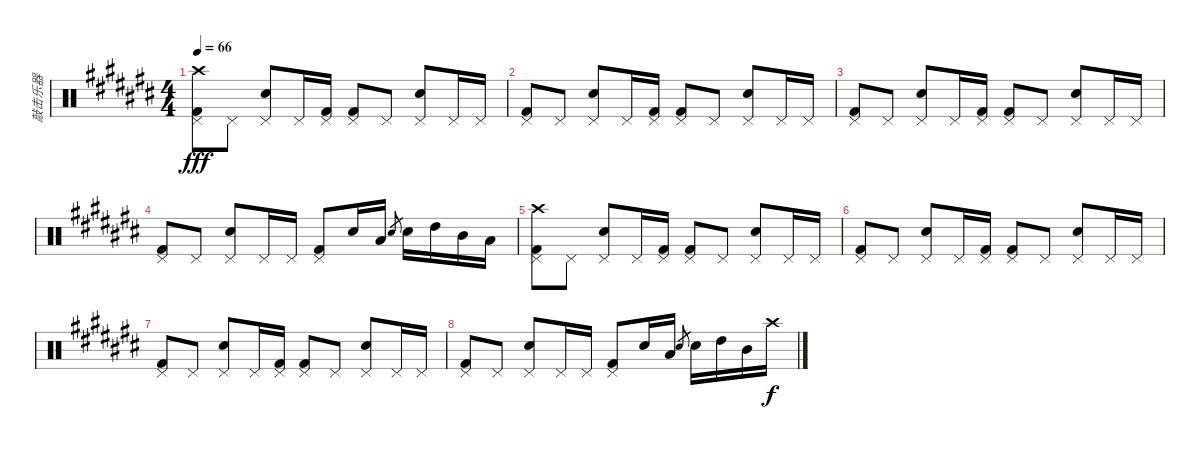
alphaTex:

\track ("敲击乐器" "敲击乐器") {instrument percussion}
\staff {score}
\articulation defaults
\ts (4 4)
\tempo 66
\clef neutral
\ks c#
("Crash high (hit)" "Pedal Hi-Hat (hit)" "Kick (hit) 2").8{dy fff} "Pedal Hi-Hat (hit)".8 ("Pedal Hi-Hat (hit)" "Snare (hit) 2").8 "Pedal Hi-Hat (hit)".16 ("Pedal Hi-Hat (hit)" "Kick (hit) 2").16 ("Pedal Hi-Hat (hit)" "Kick (hit) 2").8 "Pedal Hi-Hat (hit)".8 ("Pedal Hi-Hat (hit)" "Snare (hit) 2").8 "Pedal Hi-Hat (hit)".16 "Pedal Hi-Hat (hit)".16 |
("Pedal Hi-Hat (hit)" "Kick (hit) 2").8 "Pedal Hi-Hat (hit)".8 ("Pedal Hi-Hat (hit)" "Snare (hit) 2").8 "Pedal Hi-Hat (hit)".16 ("Pedal Hi-Hat (hit)" "Kick (hit) 2").16 ("Pedal Hi-Hat (hit)" "Kick (hit) 2").8 "Pedal Hi-Hat (hit)".8 ("Pedal Hi-Hat (hit)" "Snare (hit) 2").8 "Pedal Hi-Hat (hit)".16 "Pedal Hi-Hat (hit)".16 |
("Pedal Hi-Hat (hit)" "Kick (hit) 2").8 "Pedal Hi-Hat (hit)".8 ("Pedal Hi-Hat (hit)" "Snare (hit) 2").8 "Pedal Hi-Hat (hit)".16 ("Pedal Hi-Hat (hit)" "Kick (hit) 2").16 ("Pedal Hi-Hat (hit)" "Kick (hit) 2").8 "Pedal Hi-Hat (hit)".8 ("Pedal Hi-Hat (hit)" "Snare (hit) 2").8 "Pedal Hi-Hat (hit)".16 "Pedal Hi-Hat (hit)".16 |
("Pedal Hi-Hat (hit)" "Kick (hit) 2").8 "Pedal Hi-Hat (hit)".8 ("Pedal Hi-Hat (hit)" "Snare (hit) 2").8 "Pedal Hi-Hat (hit)".16 "Pedal Hi-Hat (hit)".16 ("Pedal Hi-Hat (hit)" "Kick (hit) 2").8 "Snare (hit) 2".16 "Low Tom (hit)".16 "Snare (hit) 2".8{gr} "Snare (hit) 2".16 "High Tom (hit)".16 "Mid Tom (hit)".16 "Low Tom (hit)".16 |
("Crash high (hit)" "Pedal Hi-Hat (hit)" "Kick (hit) 2").8 "Pedal Hi-Hat (hit)".8 ("Pedal Hi-Hat (hit)" "Snare (hit) 2").8 "Pedal Hi-Hat (hit)".16 ("Pedal Hi-Hat (hit)" "Kick (hit) 2").16 ("Pedal Hi-Hat (hit)" "Kick (hit) 2").8 "Pedal Hi-Hat (hit)".8 ("Pedal Hi-Hat (hit)" "Snare (hit) 2").8 "Pedal Hi-Hat (hit)".16 "Pedal Hi-Hat (hit)".16 |
("Pedal Hi-Hat (hit)" "Kick (hit) 2").8 "Pedal Hi-Hat (hit)".8 ("Pedal Hi-Hat (hit)" "Snare (hit) 2").8 "Pedal Hi-Hat (hit)".16 ("Pedal Hi-Hat (hit)" "Kick (hit) 2").16 ("Pedal Hi-Hat (hit)" "Kick (hit) 2").8 "Pedal Hi-Hat (hit)".8 ("Pedal Hi-Hat (hit)" "Snare (hit) 2").8 "Pedal Hi-Hat (hit)".16 "Pedal Hi-Hat (hit)".16 |
("Pedal Hi-Hat (hit)" "Kick (hit) 2").8 "Pedal Hi-Hat (hit)".8 ("Pedal Hi-Hat (hit)" "Snare (hit) 2").8 "Pedal Hi-Hat (hit)".16 ("Pedal Hi-Hat (hit)" "Kick (hit) 2").16 ("Pedal Hi-Hat (hit)" "Kick (hit) 2").8 "Pedal Hi-Hat (hit)".8 ("Pedal Hi-Hat (hit)" "Snare (hit) 2").8 "Pedal Hi-Hat (hit)".16 "Pedal Hi-Hat (hit)".16 |
("Pedal Hi-Hat (hit)" "Kick (hit) 2").8 "Pedal Hi-Hat (hit)".8 ("Pedal Hi-Hat (hit)" "Snare (hit) 2").8 "Pedal Hi-Hat (hit)".16 "Pedal Hi-Hat (hit)".16 ("Pedal Hi-Hat (hit)" "Kick (hit) 2").8 "Snare (hit) 2".16 "Low Tom (hit)".16 "Snare (hit) 2".8{gr} "Snare (hit) 2".16 "High Tom (hit)".16 "Mid Tom (hit)".16 "Crash high (hit)".16{dy f}
